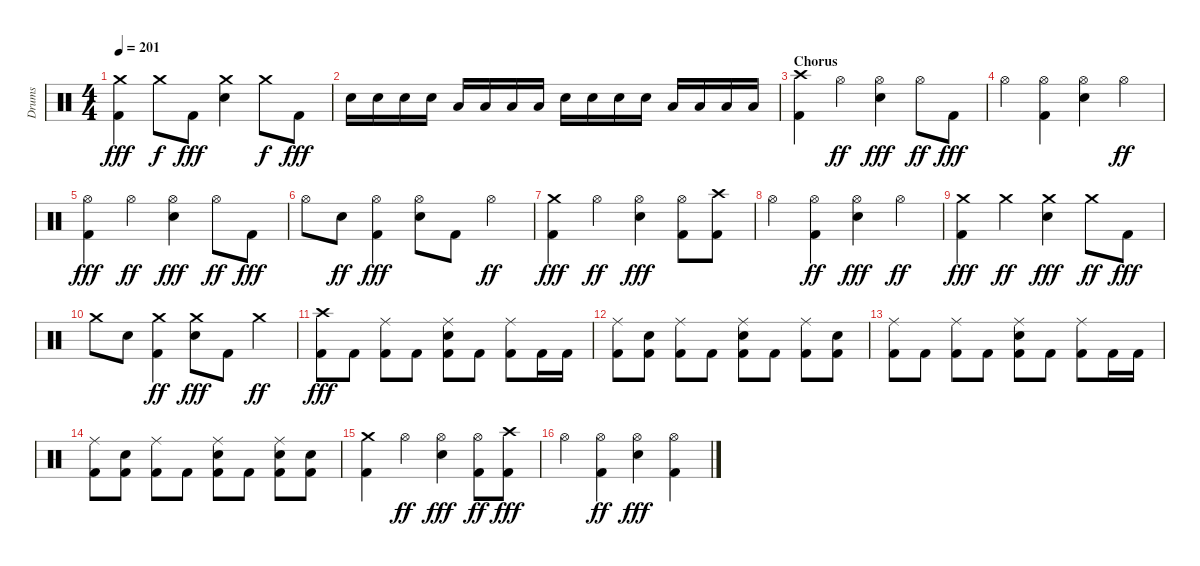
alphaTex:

\track ("Drums" "Drums") {instrument percussion}
\staff {score}
\articulation defaults
\ts (4 4)
\tempo 201
\clef neutral
\ks aminor
("Kick (hit) 2" "Crash medium (hit)").4{dy fff} "Crash medium (hit)".8{dy f} "Kick (hit) 2".8{dy fff} ("Snare (hit) 2" "Crash medium (hit)").4 "Crash medium (hit)".8{dy f} "Kick (hit) 2".8{dy fff} |
"Snare (hit) 2".16 "Snare (hit) 2".16 "Snare (hit) 2".16 "Snare (hit) 2".16 "Low Tom (hit)".16 "Low Tom (hit)".16 "Low Tom (hit)".16 "Low Tom (hit)".16 "Snare (hit) 2".16 "Snare (hit) 2".16 "Snare (hit) 2".16 "Snare (hit) 2".16 "Low Floor Tom (hit)".16 "Low Floor Tom (hit)".16 "Low Floor Tom (hit)".16 "Low Floor Tom (hit)".16 |
\section ("" "Chorus")
("Kick (hit) 2" "Crash high (hit)").4 "Hi-Hat (open)".4{dy ff} ("Hi-Hat (open)" "Snare (hit) 2").4{dy fff} "Hi-Hat (open)".8{dy ff} "Kick (hit) 2".8{dy fff} |
"Hi-Hat (open)".4 ("Kick (hit) 2" "Hi-Hat (open)").4 ("Snare (hit) 2" "Hi-Hat (open)").4 "Hi-Hat (open)".4{dy ff} |
("Kick (hit) 2" "Hi-Hat (open)").4{dy fff} "Hi-Hat (open)".4{dy ff} ("Snare (hit) 2" "Hi-Hat (open)").4{dy fff} "Hi-Hat (open)".8{dy ff} "Kick (hit) 2".8{dy fff} |
"Hi-Hat (open)".8 "Snare (hit) 2".8{dy ff} ("Hi-Hat (open)" "Kick (hit) 2").4{dy fff} ("Hi-Hat (open)" "Snare (hit) 2").8 "Kick (hit) 2".8 "Hi-Hat (open)".4{dy ff} |
("Kick (hit) 2" "Crash medium (hit)").4{dy fff} "Hi-Hat (open)".4{dy ff} ("Hi-Hat (open)" "Snare (hit) 2").4{dy fff} ("Kick (hit) 2" "Hi-Hat (open)").8 ("Kick (hit) 2" "Crash high (hit)").8 |
"Hi-Hat (open)".4 ("Kick (hit) 2" "Hi-Hat (open)").4{dy ff} ("Snare (hit) 2" "Hi-Hat (open)").4{dy fff} "Hi-Hat (open)".4{dy ff} |
("Crash medium (hit)" "Kick (hit) 2").4{dy fff} "Crash medium (hit)".4{dy ff} ("Crash medium (hit)" "Snare (hit) 2").4{dy fff} "Crash medium (hit)".8{dy ff} "Kick (hit) 2".8{dy fff} |
"Crash medium (hit)".8 "Snare (hit) 2".8 ("Kick (hit) 2" "Crash medium (hit)").4{dy ff} ("Crash medium (hit)" "Snare (hit) 2").8{dy fff} "Kick (hit) 2".8 "Crash medium (hit)".4{dy ff} |
("Crash high (hit)" "Kick (hit) 2").8{dy fff} "Kick (hit) 2".8 ("Ride (middle)" "Kick (hit) 2").8 "Kick (hit) 2".8 ("Ride (middle)" "Kick (hit) 2" "Snare (hit) 2").8 "Kick (hit) 2".8 ("Kick (hit) 2" "Ride (middle)").8 "Kick (hit) 2".16 "Kick (hit) 2".16 |
("Ride (middle)" "Kick (hit) 2").8 ("Kick (hit) 2" "Snare (hit) 2").8 ("Kick (hit) 2" "Ride (middle)").8 "Kick (hit) 2".8 ("Kick (hit) 2" "Snare (hit) 2" "Ride (middle)").8 "Kick (hit) 2".8 ("Ride (middle)" "Kick (hit) 2").8 ("Snare (hit) 2" "Kick (hit) 2").8 |
("Ride (middle)" "Kick (hit) 2").8 "Kick (hit) 2".8 ("Ride (middle)" "Kick (hit) 2").8 "Kick (hit) 2".8 ("Kick (hit) 2" "Ride (middle)" "Snare (hit) 2").8 "Kick (hit) 2".8 ("Kick (hit) 2" "Ride (middle)").8 "Kick (hit) 2".16 "Kick (hit) 2".16 |
("Ride (middle)" "Kick (hit) 2").8 ("Kick (hit) 2" "Snare (hit) 2").8 ("Ride (middle)" "Kick (hit) 2").8 "Kick (hit) 2".8 ("Kick (hit) 2" "Snare (hit) 2" "Ride (middle)").8 "Kick (hit) 2".8 ("Snare (hit) 2" "Ride (middle)" "Kick (hit) 2").8 ("Snare (hit) 2" "Kick (hit) 2").8 |
("Kick (hit) 2" "Crash medium (hit)").4 "Hi-Hat (open)".4{dy ff} ("Snare (hit) 2" "Hi-Hat (open)").4{dy fff} ("Hi-Hat (open)" "Kick (hit) 2").8{dy ff} ("Kick (hit) 2" "Crash high (hit)").8{dy fff} |
"Hi-Hat (open)".4 ("Kick (hit) 2" "Hi-Hat (open)").4{dy ff} ("Snare (hit) 2" "Hi-Hat (open)").4{dy fff} ("Kick (hit) 2" "Hi-Hat (open)").4
